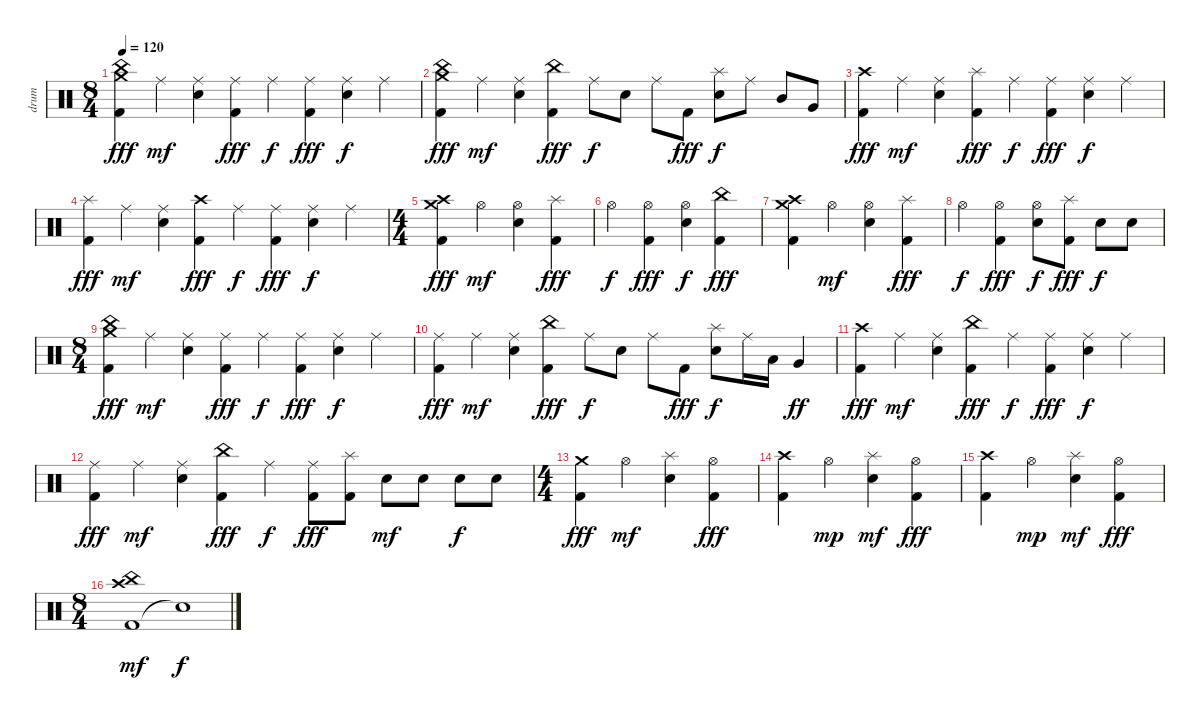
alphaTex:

\track ("drum" "drum") {instrument percussion}
\staff {score}
\articulation defaults
\ts (8 4)
\tempo 120
\clef neutral
\ks c
("China (hit)" "Crash medium (hit)" "Kick (hit) 2").4{dy fff} "Ride (middle)".4{dy mf} ("Ride (middle)" "Electric Snare (hit)").4 ("Ride (middle)" "Kick (hit) 2").4{dy fff} "Ride (middle)".4{dy f} ("Ride (middle)" "Kick (hit) 2").4{dy fff} ("Ride (middle)" "Electric Snare (hit)").4{dy f} "Ride (middle)".4 |
("China (hit)" "Crash medium (hit)" "Kick (hit) 2").4{dy fff} "Ride (middle)".4{dy mf} ("Ride (middle)" "Electric Snare (hit)").4 ("China (hit)" "Kick (hit) 2").4{dy fff} "Ride (middle)".8{dy f} "Electric Snare (hit)".8 "Ride (middle)".8 "Kick (hit) 2".8{dy fff} ("Splash (hit)" "Electric Snare (hit)").8{dy f} "Ride (middle)".8 "Mid Tom (hit)".8 "Very Low Tom (hit)".8 |
("Crash high (hit)" "Kick (hit) 2").4{dy fff} "Ride (middle)".4{dy mf} ("Ride (middle)" "Electric Snare (hit)").4 ("Splash (hit)" "Kick (hit) 2").4{dy fff} "Ride (middle)".4{dy f} ("Ride (middle)" "Kick (hit) 2").4{dy fff} ("Ride (middle)" "Electric Snare (hit)").4{dy f} "Ride (middle)".4 |
("Splash (hit)" "Kick (hit) 2").4{dy fff} "Ride (middle)".4{dy mf} ("Ride (middle)" "Electric Snare (hit)").4 ("Crash high (hit)" "Kick (hit) 2").4{dy fff} "Ride (middle)".4{dy f} ("Ride (middle)" "Kick (hit) 2").4{dy fff} ("Ride (middle)" "Electric Snare (hit)").4{dy f} "Ride (middle)".4 |
\ts (4 4)
("Crash medium (hit)" "Crash high (hit)" "Kick (hit) 2").4{dy fff} "Hi-Hat (open)".4{dy mf} ("Hi-Hat (open)" "Electric Snare (hit)").4 ("Splash (hit)" "Kick (hit) 2").4{dy fff} |
"Hi-Hat (open)".4{dy f} ("Hi-Hat (open)" "Kick (hit) 2").4{dy fff} ("Hi-Hat (open)" "Electric Snare (hit)").4{dy f} ("China (hit)" "Kick (hit) 2").4{dy fff} |
("Crash medium (hit)" "Crash high (hit)" "Kick (hit) 2").4 "Hi-Hat (open)".4{dy mf} ("Hi-Hat (open)" "Electric Snare (hit)").4 ("Splash (hit)" "Kick (hit) 2").4{dy fff} |
"Hi-Hat (open)".4{dy f} ("Hi-Hat (open)" "Kick (hit) 2").4{dy fff} ("Hi-Hat (open)" "Electric Snare (hit)").8{dy f} ("Splash (hit)" "Kick (hit) 2").8{dy fff} "Electric Snare (hit)".8{dy f} "Electric Snare (hit)".8 |
\ts (8 4)
("China (hit)" "Crash medium (hit)" "Kick (hit) 2").4{dy fff} "Ride (middle)".4{dy mf} ("Ride (middle)" "Electric Snare (hit)").4 ("Ride (middle)" "Kick (hit) 2").4{dy fff} "Ride (middle)".4{dy f} ("Ride (middle)" "Kick (hit) 2").4{dy fff} ("Ride (middle)" "Electric Snare (hit)").4{dy f} "Ride (middle)".4 |
("Ride (middle)" "Kick (hit) 2").4{dy fff} "Ride (middle)".4{dy mf} ("Ride (middle)" "Electric Snare (hit)").4 ("China (hit)" "Kick (hit) 2").4{dy fff} "Ride (middle)".8{dy f} "Electric Snare (hit)".8 "Ride (middle)".8 "Kick (hit) 2".8{dy fff} ("Splash (hit)" "Electric Snare (hit)").8{dy f} "Ride (middle)".16 "Low Tom (hit)".16 "Very Low Tom (hit)".4{dy ff} |
("Crash high (hit)" "Kick (hit) 2").4{dy fff} "Ride (middle)".4{dy mf} ("Ride (middle)" "Electric Snare (hit)").4 ("China (hit)" "Kick (hit) 2").4{dy fff} "Ride (middle)".4{dy f} ("Ride (middle)" "Kick (hit) 2").4{dy fff} ("Ride (middle)" "Electric Snare (hit)").4{dy f} "Ride (middle)".4 |
("Ride (middle)" "Kick (hit) 2").4{dy fff} "Ride (middle)".4{dy mf} ("Ride (middle)" "Electric Snare (hit)").4 ("China (hit)" "Kick (hit) 2").4{dy fff} "Ride (middle)".4{dy f} ("Ride (middle)" "Kick (hit) 2").8{dy fff} ("Splash (hit)" "Kick (hit) 2").8 "Electric Snare (hit)".8{dy mf} "Electric Snare (hit)".8 "Electric Snare (hit)".8{dy f} "Electric Snare (hit)".8 |
\ts (4 4)
("Crash medium (hit)" "Kick (hit) 2").4{dy fff} "Hi-Hat (open)".4{dy mf} ("Splash (hit)" "Electric Snare (hit)").4 ("Hi-Hat (open)" "Kick (hit) 2").4{dy fff} |
("Crash high (hit)" "Kick (hit) 2").4 "Hi-Hat (open)".4{dy mp} ("Splash (hit)" "Electric Snare (hit)").4{dy mf} ("Hi-Hat (open)" "Kick (hit) 2").4{dy fff} |
("Crash high (hit)" "Kick (hit) 2").4 "Hi-Hat (open)".4{dy mp} ("Splash (hit)" "Electric Snare (hit)").4{dy mf} ("Hi-Hat (open)" "Kick (hit) 2").4{dy fff} |
\ts (8 4)
("Kick (hit) 2" "Crash high (hit)" "China (hit)").1{dy mf} "Snare (hit)"{t}.1{dy f}
